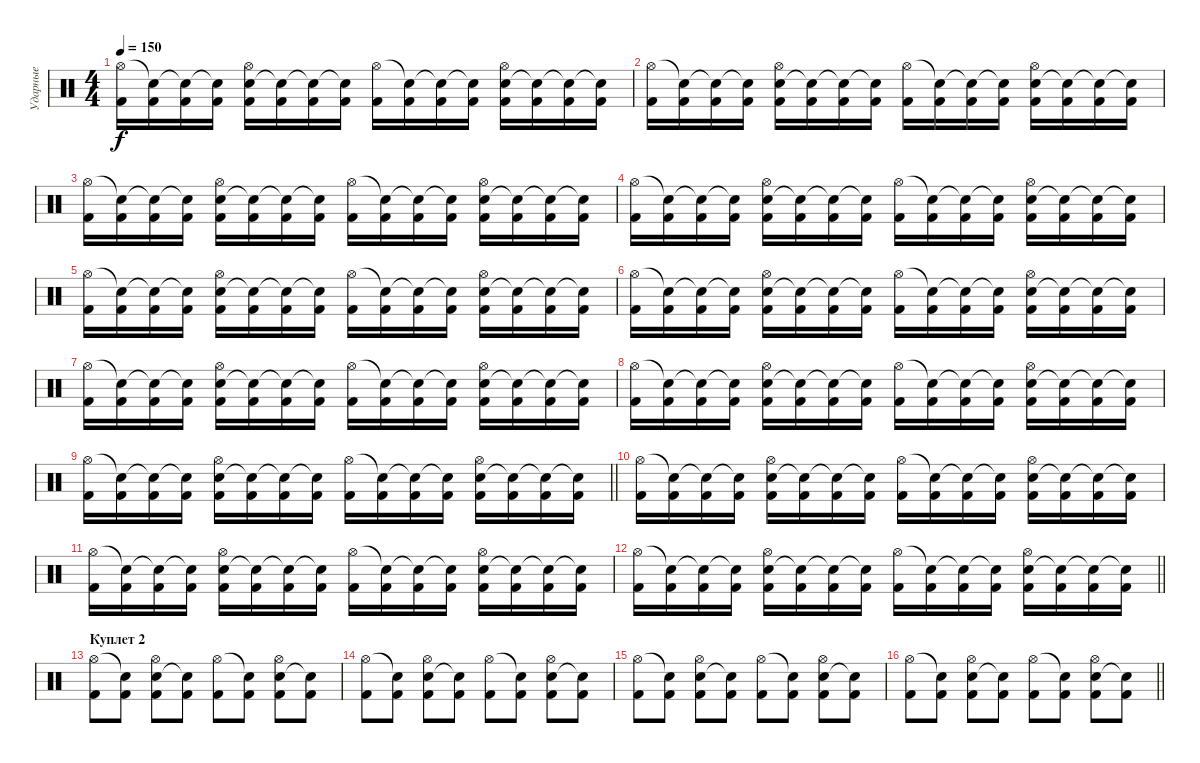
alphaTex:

\track ("Ударные" "Ударные") {instrument percussion}
\staff {score}
\articulation defaults
\ts (4 4)
\tempo 150
\clef neutral
\ks c
("Hi-Hat (open)" "Kick (hit) 2").16{dy f} ("Snare (hit)"{t} "Kick (hit) 2").16 ("Snare (hit)"{t} "Kick (hit) 2").16 ("Snare (hit)"{t} "Kick (hit) 2").16 ("Electric Snare (hit)" "Hi-Hat (open)" "Kick (hit) 2").16 ("Snare (hit)"{t} "Kick (hit) 2").16 ("Snare (hit)"{t} "Kick (hit) 2").16 ("Snare (hit)"{t} "Kick (hit) 2").16 ("Hi-Hat (open)" "Kick (hit) 2").16 ("Snare (hit)"{t} "Kick (hit) 2").16 ("Snare (hit)"{t} "Kick (hit) 2").16 ("Snare (hit)"{t} "Kick (hit) 2").16 ("Electric Snare (hit)" "Hi-Hat (open)" "Kick (hit) 2").16 ("Snare (hit)"{t} "Kick (hit) 2").16 ("Snare (hit)"{t} "Kick (hit) 2").16 ("Snare (hit)"{t} "Kick (hit) 2").16 |
("Hi-Hat (open)" "Kick (hit) 2").16 ("Snare (hit)"{t} "Kick (hit) 2").16 ("Snare (hit)"{t} "Kick (hit) 2").16 ("Snare (hit)"{t} "Kick (hit) 2").16 ("Electric Snare (hit)" "Hi-Hat (open)" "Kick (hit) 2").16 ("Snare (hit)"{t} "Kick (hit) 2").16 ("Snare (hit)"{t} "Kick (hit) 2").16 ("Snare (hit)"{t} "Kick (hit) 2").16 ("Hi-Hat (open)" "Kick (hit) 2").16 ("Snare (hit)"{t} "Kick (hit) 2").16 ("Snare (hit)"{t} "Kick (hit) 2").16 ("Snare (hit)"{t} "Kick (hit) 2").16 ("Electric Snare (hit)" "Hi-Hat (open)" "Kick (hit) 2").16 ("Snare (hit)"{t} "Kick (hit) 2").16 ("Snare (hit)"{t} "Kick (hit) 2").16 ("Snare (hit)"{t} "Kick (hit) 2").16 |
("Hi-Hat (open)" "Kick (hit) 2").16 ("Snare (hit)"{t} "Kick (hit) 2").16 ("Snare (hit)"{t} "Kick (hit) 2").16 ("Snare (hit)"{t} "Kick (hit) 2").16 ("Electric Snare (hit)" "Hi-Hat (open)" "Kick (hit) 2").16 ("Snare (hit)"{t} "Kick (hit) 2").16 ("Snare (hit)"{t} "Kick (hit) 2").16 ("Snare (hit)"{t} "Kick (hit) 2").16 ("Hi-Hat (open)" "Kick (hit) 2").16 ("Snare (hit)"{t} "Kick (hit) 2").16 ("Snare (hit)"{t} "Kick (hit) 2").16 ("Snare (hit)"{t} "Kick (hit) 2").16 ("Electric Snare (hit)" "Hi-Hat (open)" "Kick (hit) 2").16 ("Snare (hit)"{t} "Kick (hit) 2").16 ("Snare (hit)"{t} "Kick (hit) 2").16 ("Snare (hit)"{t} "Kick (hit) 2").16 |
("Hi-Hat (open)" "Kick (hit) 2").16 ("Snare (hit)"{t} "Kick (hit) 2").16 ("Snare (hit)"{t} "Kick (hit) 2").16 ("Snare (hit)"{t} "Kick (hit) 2").16 ("Electric Snare (hit)" "Hi-Hat (open)" "Kick (hit) 2").16 ("Snare (hit)"{t} "Kick (hit) 2").16 ("Snare (hit)"{t} "Kick (hit) 2").16 ("Snare (hit)"{t} "Kick (hit) 2").16 ("Hi-Hat (open)" "Kick (hit) 2").16 ("Snare (hit)"{t} "Kick (hit) 2").16 ("Snare (hit)"{t} "Kick (hit) 2").16 ("Snare (hit)"{t} "Kick (hit) 2").16 ("Electric Snare (hit)" "Hi-Hat (open)" "Kick (hit) 2").16 ("Snare (hit)"{t} "Kick (hit) 2").16 ("Snare (hit)"{t} "Kick (hit) 2").16 ("Snare (hit)"{t} "Kick (hit) 2").16 |
("Hi-Hat (open)" "Kick (hit) 2").16 ("Snare (hit)"{t} "Kick (hit) 2").16 ("Snare (hit)"{t} "Kick (hit) 2").16 ("Snare (hit)"{t} "Kick (hit) 2").16 ("Electric Snare (hit)" "Hi-Hat (open)" "Kick (hit) 2").16 ("Snare (hit)"{t} "Kick (hit) 2").16 ("Snare (hit)"{t} "Kick (hit) 2").16 ("Snare (hit)"{t} "Kick (hit) 2").16 ("Hi-Hat (open)" "Kick (hit) 2").16 ("Snare (hit)"{t} "Kick (hit) 2").16 ("Snare (hit)"{t} "Kick (hit) 2").16 ("Snare (hit)"{t} "Kick (hit) 2").16 ("Electric Snare (hit)" "Hi-Hat (open)" "Kick (hit) 2").16 ("Snare (hit)"{t} "Kick (hit) 2").16 ("Snare (hit)"{t} "Kick (hit) 2").16 ("Snare (hit)"{t} "Kick (hit) 2").16 |
("Hi-Hat (open)" "Kick (hit) 2").16 ("Snare (hit)"{t} "Kick (hit) 2").16 ("Snare (hit)"{t} "Kick (hit) 2").16 ("Snare (hit)"{t} "Kick (hit) 2").16 ("Electric Snare (hit)" "Hi-Hat (open)" "Kick (hit) 2").16 ("Snare (hit)"{t} "Kick (hit) 2").16 ("Snare (hit)"{t} "Kick (hit) 2").16 ("Snare (hit)"{t} "Kick (hit) 2").16 ("Hi-Hat (open)" "Kick (hit) 2").16 ("Snare (hit)"{t} "Kick (hit) 2").16 ("Snare (hit)"{t} "Kick (hit) 2").16 ("Snare (hit)"{t} "Kick (hit) 2").16 ("Electric Snare (hit)" "Hi-Hat (open)" "Kick (hit) 2").16 ("Snare (hit)"{t} "Kick (hit) 2").16 ("Snare (hit)"{t} "Kick (hit) 2").16 ("Snare (hit)"{t} "Kick (hit) 2").16 |
("Hi-Hat (open)" "Kick (hit) 2").16 ("Snare (hit)"{t} "Kick (hit) 2").16 ("Snare (hit)"{t} "Kick (hit) 2").16 ("Snare (hit)"{t} "Kick (hit) 2").16 ("Electric Snare (hit)" "Hi-Hat (open)" "Kick (hit) 2").16 ("Snare (hit)"{t} "Kick (hit) 2").16 ("Snare (hit)"{t} "Kick (hit) 2").16 ("Snare (hit)"{t} "Kick (hit) 2").16 ("Hi-Hat (open)" "Kick (hit) 2").16 ("Snare (hit)"{t} "Kick (hit) 2").16 ("Snare (hit)"{t} "Kick (hit) 2").16 ("Snare (hit)"{t} "Kick (hit) 2").16 ("Electric Snare (hit)" "Hi-Hat (open)" "Kick (hit) 2").16 ("Snare (hit)"{t} "Kick (hit) 2").16 ("Snare (hit)"{t} "Kick (hit) 2").16 ("Snare (hit)"{t} "Kick (hit) 2").16 |
("Hi-Hat (open)" "Kick (hit) 2").16 ("Snare (hit)"{t} "Kick (hit) 2").16 ("Snare (hit)"{t} "Kick (hit) 2").16 ("Snare (hit)"{t} "Kick (hit) 2").16 ("Electric Snare (hit)" "Hi-Hat (open)" "Kick (hit) 2").16 ("Snare (hit)"{t} "Kick (hit) 2").16 ("Snare (hit)"{t} "Kick (hit) 2").16 ("Snare (hit)"{t} "Kick (hit) 2").16 ("Hi-Hat (open)" "Kick (hit) 2").16 ("Snare (hit)"{t} "Kick (hit) 2").16 ("Snare (hit)"{t} "Kick (hit) 2").16 ("Snare (hit)"{t} "Kick (hit) 2").16 ("Electric Snare (hit)" "Hi-Hat (open)" "Kick (hit) 2").16 ("Snare (hit)"{t} "Kick (hit) 2").16 ("Snare (hit)"{t} "Kick (hit) 2").16 ("Snare (hit)"{t} "Kick (hit) 2").16 |
\barLineRight lightlight
("Hi-Hat (open)" "Kick (hit) 2").16 ("Snare (hit)"{t} "Kick (hit) 2").16 ("Snare (hit)"{t} "Kick (hit) 2").16 ("Snare (hit)"{t} "Kick (hit) 2").16 ("Electric Snare (hit)" "Hi-Hat (open)" "Kick (hit) 2").16 ("Snare (hit)"{t} "Kick (hit) 2").16 ("Snare (hit)"{t} "Kick (hit) 2").16 ("Snare (hit)"{t} "Kick (hit) 2").16 ("Hi-Hat (open)" "Kick (hit) 2").16 ("Snare (hit)"{t} "Kick (hit) 2").16 ("Snare (hit)"{t} "Kick (hit) 2").16 ("Snare (hit)"{t} "Kick (hit) 2").16 ("Electric Snare (hit)" "Hi-Hat (open)" "Kick (hit) 2").16 ("Snare (hit)"{t} "Kick (hit) 2").16 ("Snare (hit)"{t} "Kick (hit) 2").16 ("Snare (hit)"{t} "Kick (hit) 2").16 |
\section ("" "")
("Hi-Hat (open)" "Kick (hit) 2").16 ("Snare (hit)"{t} "Kick (hit) 2").16 ("Snare (hit)"{t} "Kick (hit) 2").16 ("Snare (hit)"{t} "Kick (hit) 2").16 ("Electric Snare (hit)" "Hi-Hat (open)" "Kick (hit) 2").16 ("Snare (hit)"{t} "Kick (hit) 2").16 ("Snare (hit)"{t} "Kick (hit) 2").16 ("Snare (hit)"{t} "Kick (hit) 2").16 ("Hi-Hat (open)" "Kick (hit) 2").16 ("Snare (hit)"{t} "Kick (hit) 2").16 ("Snare (hit)"{t} "Kick (hit) 2").16 ("Snare (hit)"{t} "Kick (hit) 2").16 ("Electric Snare (hit)" "Hi-Hat (open)" "Kick (hit) 2").16 ("Snare (hit)"{t} "Kick (hit) 2").16 ("Snare (hit)"{t} "Kick (hit) 2").16 ("Snare (hit)"{t} "Kick (hit) 2").16 |
("Hi-Hat (open)" "Kick (hit) 2").16 ("Snare (hit)"{t} "Kick (hit) 2").16 ("Snare (hit)"{t} "Kick (hit) 2").16 ("Snare (hit)"{t} "Kick (hit) 2").16 ("Electric Snare (hit)" "Hi-Hat (open)" "Kick (hit) 2").16 ("Snare (hit)"{t} "Kick (hit) 2").16 ("Snare (hit)"{t} "Kick (hit) 2").16 ("Snare (hit)"{t} "Kick (hit) 2").16 ("Hi-Hat (open)" "Kick (hit) 2").16 ("Snare (hit)"{t} "Kick (hit) 2").16 ("Snare (hit)"{t} "Kick (hit) 2").16 ("Snare (hit)"{t} "Kick (hit) 2").16 ("Electric Snare (hit)" "Hi-Hat (open)" "Kick (hit) 2").16 ("Snare (hit)"{t} "Kick (hit) 2").16 ("Snare (hit)"{t} "Kick (hit) 2").16 ("Snare (hit)"{t} "Kick (hit) 2").16 |
\barLineRight lightlight
("Hi-Hat (open)" "Kick (hit) 2").16 ("Snare (hit)"{t} "Kick (hit) 2").16 ("Snare (hit)"{t} "Kick (hit) 2").16 ("Snare (hit)"{t} "Kick (hit) 2").16 ("Electric Snare (hit)" "Hi-Hat (open)" "Kick (hit) 2").16 ("Snare (hit)"{t} "Kick (hit) 2").16 ("Snare (hit)"{t} "Kick (hit) 2").16 ("Snare (hit)"{t} "Kick (hit) 2").16 ("Hi-Hat (open)" "Kick (hit) 2").16 ("Snare (hit)"{t} "Kick (hit) 2").16 ("Snare (hit)"{t} "Kick (hit) 2").16 ("Snare (hit)"{t} "Kick (hit) 2").16 ("Electric Snare (hit)" "Hi-Hat (open)" "Kick (hit) 2").16 ("Snare (hit)"{t} "Kick (hit) 2").16 ("Snare (hit)"{t} "Kick (hit) 2").16 ("Snare (hit)"{t} "Kick (hit) 2").16 |
\section ("" "Куплет 2")
("Hi-Hat (open)" "Kick (hit) 2").8 ("Snare (hit)"{t} "Kick (hit) 2").8 ("Electric Snare (hit)" "Hi-Hat (open)" "Kick (hit) 2").8 ("Snare (hit)"{t} "Kick (hit) 2").8 ("Hi-Hat (open)" "Kick (hit) 2").8 ("Snare (hit)"{t} "Kick (hit) 2").8 ("Electric Snare (hit)" "Hi-Hat (open)" "Kick (hit) 2").8 ("Snare (hit)"{t} "Kick (hit) 2").8 |
("Hi-Hat (open)" "Kick (hit) 2").8 ("Snare (hit)"{t} "Kick (hit) 2").8 ("Electric Snare (hit)" "Hi-Hat (open)" "Kick (hit) 2").8 ("Snare (hit)"{t} "Kick (hit) 2").8 ("Hi-Hat (open)" "Kick (hit) 2").8 ("Snare (hit)"{t} "Kick (hit) 2").8 ("Electric Snare (hit)" "Hi-Hat (open)" "Kick (hit) 2").8 ("Snare (hit)"{t} "Kick (hit) 2").8 |
("Hi-Hat (open)" "Kick (hit) 2").8 ("Snare (hit)"{t} "Kick (hit) 2").8 ("Electric Snare (hit)" "Hi-Hat (open)" "Kick (hit) 2").8 ("Snare (hit)"{t} "Kick (hit) 2").8 ("Hi-Hat (open)" "Kick (hit) 2").8 ("Snare (hit)"{t} "Kick (hit) 2").8 ("Electric Snare (hit)" "Hi-Hat (open)" "Kick (hit) 2").8 ("Snare (hit)"{t} "Kick (hit) 2").8 |
\barLineRight lightlight
("Hi-Hat (open)" "Kick (hit) 2").8 ("Snare (hit)"{t} "Kick (hit) 2").8 ("Electric Snare (hit)" "Hi-Hat (open)" "Kick (hit) 2").8 ("Snare (hit)"{t} "Kick (hit) 2").8 ("Hi-Hat (open)" "Kick (hit) 2").8 ("Snare (hit)"{t} "Kick (hit) 2").8 ("Electric Snare (hit)" "Hi-Hat (open)" "Kick (hit) 2").8 ("Snare (hit)"{t} "Kick (hit) 2").8
